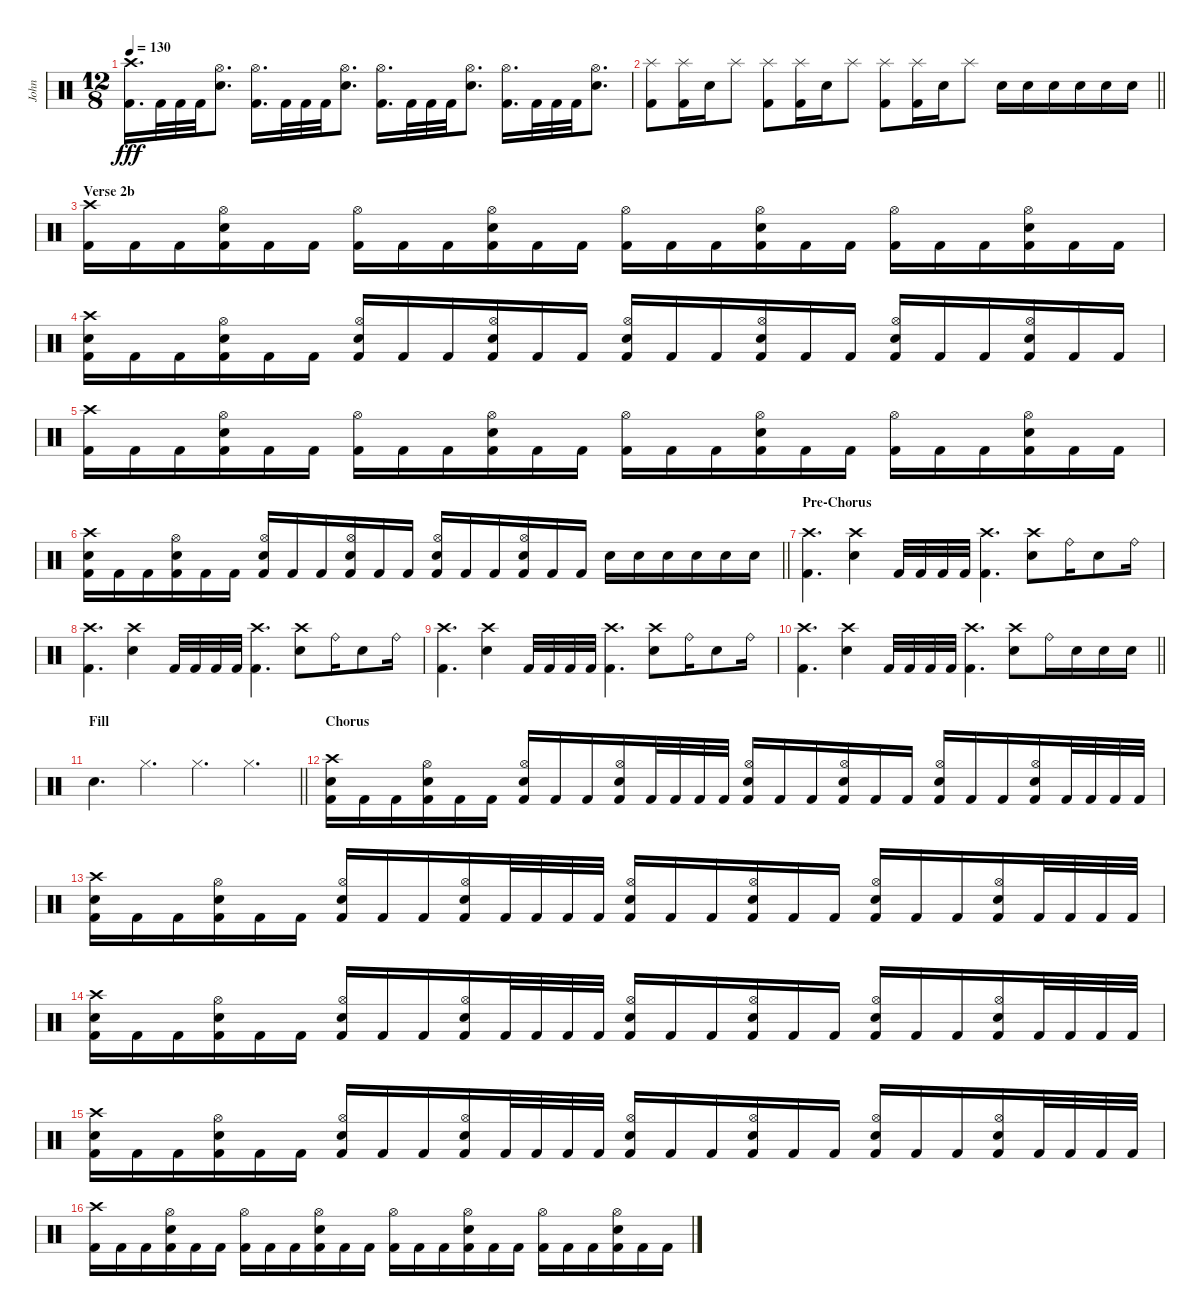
\track ("John" "John") {instrument percussion}
\staff {score}
\articulation defaults
\ts (12 8)
\tempo 130
\clef neutral
\ks c
("Crash high (hit)" "Kick (hit) 2").16{d dy fff} "Kick (hit) 2".32 "Kick (hit) 2".32 "Kick (hit) 2".32 ("Hi-Hat (open)" "Electric Snare (hit)").8{d} ("Hi-Hat (open)" "Kick (hit) 2").16{d} "Kick (hit) 2".32 "Kick (hit) 2".32 "Kick (hit) 2".32 ("Hi-Hat (open)" "Electric Snare (hit)").8{d} ("Hi-Hat (open)" "Kick (hit) 2").16{d} "Kick (hit) 2".32 "Kick (hit) 2".32 "Kick (hit) 2".32 ("Hi-Hat (open)" "Electric Snare (hit)").8{d} ("Hi-Hat (open)" "Kick (hit) 2").16{d} "Kick (hit) 2".32 "Kick (hit) 2".32 "Kick (hit) 2".32 ("Hi-Hat (open)" "Electric Snare (hit)").8{d} |
\barLineRight lightlight
("Splash (hit)" "Kick (hit) 2").8 ("Splash (hit)" "Kick (hit) 2").16 "Electric Snare (hit)".16 "Splash (hit)".8 ("Splash (hit)" "Kick (hit) 2").8 ("Splash (hit)" "Kick (hit) 2").16 "Electric Snare (hit)".16 "Splash (hit)".8 ("Splash (hit)" "Kick (hit) 2").8 ("Splash (hit)" "Kick (hit) 2").16 "Electric Snare (hit)".16 "Splash (hit)".8 "Electric Snare (hit)".16 "Electric Snare (hit)".16 "Electric Snare (hit)".16 "Electric Snare (hit)".16 "Electric Snare (hit)".16 "Electric Snare (hit)".16 |
\section ("" "Verse 2b")
("Crash high (hit)" "Kick (hit) 2").16 "Kick (hit) 2".16 "Kick (hit) 2".16 ("Hi-Hat (open)" "Electric Snare (hit)" "Kick (hit) 2").16 "Kick (hit) 2".16 "Kick (hit) 2".16 ("Hi-Hat (open)" "Kick (hit) 2").16 "Kick (hit) 2".16 "Kick (hit) 2".16 ("Hi-Hat (open)" "Electric Snare (hit)" "Kick (hit) 2").16 "Kick (hit) 2".16 "Kick (hit) 2".16 ("Hi-Hat (open)" "Kick (hit) 2").16 "Kick (hit) 2".16 "Kick (hit) 2".16 ("Hi-Hat (open)" "Electric Snare (hit)" "Kick (hit) 2").16 "Kick (hit) 2".16 "Kick (hit) 2".16 ("Hi-Hat (open)" "Kick (hit) 2").16 "Kick (hit) 2".16 "Kick (hit) 2".16 ("Hi-Hat (open)" "Electric Snare (hit)" "Kick (hit) 2").16 "Kick (hit) 2".16 "Kick (hit) 2".16 |
("Crash high (hit)" "Electric Snare (hit)" "Kick (hit) 2").16 "Kick (hit) 2".16 "Kick (hit) 2".16 ("Hi-Hat (open)" "Electric Snare (hit)" "Kick (hit) 2").16 "Kick (hit) 2".16 "Kick (hit) 2".16 ("Hi-Hat (open)" "Electric Snare (hit)" "Kick (hit) 2").16 "Kick (hit) 2".16 "Kick (hit) 2".16 ("Hi-Hat (open)" "Electric Snare (hit)" "Kick (hit) 2").16 "Kick (hit) 2".16 "Kick (hit) 2".16 ("Hi-Hat (open)" "Electric Snare (hit)" "Kick (hit) 2").16 "Kick (hit) 2".16 "Kick (hit) 2".16 ("Hi-Hat (open)" "Electric Snare (hit)" "Kick (hit) 2").16 "Kick (hit) 2".16 "Kick (hit) 2".16 ("Hi-Hat (open)" "Electric Snare (hit)" "Kick (hit) 2").16 "Kick (hit) 2".16 "Kick (hit) 2".16 ("Hi-Hat (open)" "Electric Snare (hit)" "Kick (hit) 2").16 "Kick (hit) 2".16 "Kick (hit) 2".16 |
("Crash high (hit)" "Kick (hit) 2").16 "Kick (hit) 2".16 "Kick (hit) 2".16 ("Hi-Hat (open)" "Electric Snare (hit)" "Kick (hit) 2").16 "Kick (hit) 2".16 "Kick (hit) 2".16 ("Hi-Hat (open)" "Kick (hit) 2").16 "Kick (hit) 2".16 "Kick (hit) 2".16 ("Hi-Hat (open)" "Electric Snare (hit)" "Kick (hit) 2").16 "Kick (hit) 2".16 "Kick (hit) 2".16 ("Hi-Hat (open)" "Kick (hit) 2").16 "Kick (hit) 2".16 "Kick (hit) 2".16 ("Hi-Hat (open)" "Electric Snare (hit)" "Kick (hit) 2").16 "Kick (hit) 2".16 "Kick (hit) 2".16 ("Hi-Hat (open)" "Kick (hit) 2").16 "Kick (hit) 2".16 "Kick (hit) 2".16 ("Hi-Hat (open)" "Electric Snare (hit)" "Kick (hit) 2").16 "Kick (hit) 2".16 "Kick (hit) 2".16 |
\barLineRight lightlight
("Crash high (hit)" "Electric Snare (hit)" "Kick (hit) 2").16 "Kick (hit) 2".16 "Kick (hit) 2".16 ("Hi-Hat (open)" "Electric Snare (hit)" "Kick (hit) 2").16 "Kick (hit) 2".16 "Kick (hit) 2".16 ("Hi-Hat (open)" "Electric Snare (hit)" "Kick (hit) 2").16 "Kick (hit) 2".16 "Kick (hit) 2".16 ("Hi-Hat (open)" "Electric Snare (hit)" "Kick (hit) 2").16 "Kick (hit) 2".16 "Kick (hit) 2".16 ("Hi-Hat (open)" "Electric Snare (hit)" "Kick (hit) 2").16 "Kick (hit) 2".16 "Kick (hit) 2".16 ("Hi-Hat (open)" "Electric Snare (hit)" "Kick (hit) 2").16 "Kick (hit) 2".16 "Kick (hit) 2".16 "Electric Snare (hit)".16 "Electric Snare (hit)".16 "Electric Snare (hit)".16 "Electric Snare (hit)".16 "Electric Snare (hit)".16 "Electric Snare (hit)".16 |
\section ("" "Pre-Chorus")
("Crash high (hit)" "Kick (hit) 2").4{d} ("Crash high (hit)" "Electric Snare (hit)").4 "Kick (hit) 2".32 "Kick (hit) 2".32 "Kick (hit) 2".32 "Kick (hit) 2".32 ("Crash high (hit)" "Kick (hit) 2").4{d} ("Crash high (hit)" "Electric Snare (hit)").8 "Ride (bell)".16 "Electric Snare (hit)".8 "Ride (bell)".16 |
("Crash high (hit)" "Kick (hit) 2").4{d} ("Crash high (hit)" "Electric Snare (hit)").4 "Kick (hit) 2".32 "Kick (hit) 2".32 "Kick (hit) 2".32 "Kick (hit) 2".32 ("Crash high (hit)" "Kick (hit) 2").4{d} ("Crash high (hit)" "Electric Snare (hit)").8 "Ride (bell)".16 "Electric Snare (hit)".8 "Ride (bell)".16 |
("Crash high (hit)" "Kick (hit) 2").4{d} ("Crash high (hit)" "Electric Snare (hit)").4 "Kick (hit) 2".32 "Kick (hit) 2".32 "Kick (hit) 2".32 "Kick (hit) 2".32 ("Crash high (hit)" "Kick (hit) 2").4{d} ("Crash high (hit)" "Electric Snare (hit)").8 "Ride (bell)".16 "Electric Snare (hit)".8 "Ride (bell)".16 |
\barLineRight lightlight
("Crash high (hit)" "Kick (hit) 2").4{d} ("Crash high (hit)" "Electric Snare (hit)").4 "Kick (hit) 2".32 "Kick (hit) 2".32 "Kick (hit) 2".32 "Kick (hit) 2".32 ("Crash high (hit)" "Kick (hit) 2").4{d} ("Crash high (hit)" "Electric Snare (hit)").8 "Ride (bell)".16 "Electric Snare (hit)".16 "Electric Snare (hit)".16 "Electric Snare (hit)".16 |
\section ("" "Fill")
\barLineRight lightlight "Electric Snare (hit)".4{d} "Hi-Hat (closed)".4{d} "Hi-Hat (closed)".4{d} "Hi-Hat (closed)".4{d}
|
\section ("" "Chorus")
("Crash high (hit)" "Electric Snare (hit)" "Kick (hit) 2").16 "Kick (hit) 2".16 "Kick (hit) 2".16 ("Hi-Hat (open)" "Electric Snare (hit)" "Kick (hit) 2").16 "Kick (hit) 2".16 "Kick (hit) 2".16 ("Hi-Hat (open)" "Electric Snare (hit)" "Kick (hit) 2").16 "Kick (hit) 2".16 "Kick (hit) 2".16 ("Hi-Hat (open)" "Electric Snare (hit)" "Kick (hit) 2").16 "Kick (hit) 2".32 "Kick (hit) 2".32 "Kick (hit) 2".32 "Kick (hit) 2".32 ("Hi-Hat (open)" "Electric Snare (hit)" "Kick (hit) 2").16 "Kick (hit) 2".16 "Kick (hit) 2".16 ("Hi-Hat (open)" "Electric Snare (hit)" "Kick (hit) 2").16 "Kick (hit) 2".16 "Kick (hit) 2".16 ("Hi-Hat (open)" "Electric Snare (hit)" "Kick (hit) 2").16 "Kick (hit) 2".16 "Kick (hit) 2".16 ("Hi-Hat (open)" "Electric Snare (hit)" "Kick (hit) 2").16 "Kick (hit) 2".32 "Kick (hit) 2".32 "Kick (hit) 2".32 "Kick (hit) 2".32 |
("Crash high (hit)" "Electric Snare (hit)" "Kick (hit) 2").16 "Kick (hit) 2".16 "Kick (hit) 2".16 ("Hi-Hat (open)" "Electric Snare (hit)" "Kick (hit) 2").16 "Kick (hit) 2".16 "Kick (hit) 2".16 ("Hi-Hat (open)" "Electric Snare (hit)" "Kick (hit) 2").16 "Kick (hit) 2".16 "Kick (hit) 2".16 ("Hi-Hat (open)" "Electric Snare (hit)" "Kick (hit) 2").16 "Kick (hit) 2".32 "Kick (hit) 2".32 "Kick (hit) 2".32 "Kick (hit) 2".32 ("Hi-Hat (open)" "Electric Snare (hit)" "Kick (hit) 2").16 "Kick (hit) 2".16 "Kick (hit) 2".16 ("Hi-Hat (open)" "Electric Snare (hit)" "Kick (hit) 2").16 "Kick (hit) 2".16 "Kick (hit) 2".16 ("Hi-Hat (open)" "Electric Snare (hit)" "Kick (hit) 2").16 "Kick (hit) 2".16 "Kick (hit) 2".16 ("Hi-Hat (open)" "Electric Snare (hit)" "Kick (hit) 2").16 "Kick (hit) 2".32 "Kick (hit) 2".32 "Kick (hit) 2".32 "Kick (hit) 2".32 |
("Crash high (hit)" "Electric Snare (hit)" "Kick (hit) 2").16 "Kick (hit) 2".16 "Kick (hit) 2".16 ("Hi-Hat (open)" "Electric Snare (hit)" "Kick (hit) 2").16 "Kick (hit) 2".16 "Kick (hit) 2".16 ("Hi-Hat (open)" "Electric Snare (hit)" "Kick (hit) 2").16 "Kick (hit) 2".16 "Kick (hit) 2".16 ("Hi-Hat (open)" "Electric Snare (hit)" "Kick (hit) 2").16 "Kick (hit) 2".32 "Kick (hit) 2".32 "Kick (hit) 2".32 "Kick (hit) 2".32 ("Hi-Hat (open)" "Electric Snare (hit)" "Kick (hit) 2").16 "Kick (hit) 2".16 "Kick (hit) 2".16 ("Hi-Hat (open)" "Electric Snare (hit)" "Kick (hit) 2").16 "Kick (hit) 2".16 "Kick (hit) 2".16 ("Hi-Hat (open)" "Electric Snare (hit)" "Kick (hit) 2").16 "Kick (hit) 2".16 "Kick (hit) 2".16 ("Hi-Hat (open)" "Electric Snare (hit)" "Kick (hit) 2").16 "Kick (hit) 2".32 "Kick (hit) 2".32 "Kick (hit) 2".32 "Kick (hit) 2".32 |
("Crash high (hit)" "Electric Snare (hit)" "Kick (hit) 2").16 "Kick (hit) 2".16 "Kick (hit) 2".16 ("Hi-Hat (open)" "Electric Snare (hit)" "Kick (hit) 2").16 "Kick (hit) 2".16 "Kick (hit) 2".16 ("Hi-Hat (open)" "Electric Snare (hit)" "Kick (hit) 2").16 "Kick (hit) 2".16 "Kick (hit) 2".16 ("Hi-Hat (open)" "Electric Snare (hit)" "Kick (hit) 2").16 "Kick (hit) 2".32 "Kick (hit) 2".32 "Kick (hit) 2".32 "Kick (hit) 2".32 ("Hi-Hat (open)" "Electric Snare (hit)" "Kick (hit) 2").16 "Kick (hit) 2".16 "Kick (hit) 2".16 ("Hi-Hat (open)" "Electric Snare (hit)" "Kick (hit) 2").16 "Kick (hit) 2".16 "Kick (hit) 2".16 ("Hi-Hat (open)" "Electric Snare (hit)" "Kick (hit) 2").16 "Kick (hit) 2".16 "Kick (hit) 2".16 ("Hi-Hat (open)" "Electric Snare (hit)" "Kick (hit) 2").16 "Kick (hit) 2".32 "Kick (hit) 2".32 "Kick (hit) 2".32 "Kick (hit) 2".32 |
("Crash high (hit)" "Kick (hit) 2").16 "Kick (hit) 2".16 "Kick (hit) 2".16 ("Hi-Hat (open)" "Electric Snare (hit)" "Kick (hit) 2").16 "Kick (hit) 2".16 "Kick (hit) 2".16 ("Hi-Hat (open)" "Kick (hit) 2").16 "Kick (hit) 2".16 "Kick (hit) 2".16 ("Hi-Hat (open)" "Electric Snare (hit)" "Kick (hit) 2").16 "Kick (hit) 2".16 "Kick (hit) 2".16 ("Hi-Hat (open)" "Kick (hit) 2").16 "Kick (hit) 2".16 "Kick (hit) 2".16 ("Hi-Hat (open)" "Electric Snare (hit)" "Kick (hit) 2").16 "Kick (hit) 2".16 "Kick (hit) 2".16 ("Hi-Hat (open)" "Kick (hit) 2").16 "Kick (hit) 2".16 "Kick (hit) 2".16 ("Hi-Hat (open)" "Electric Snare (hit)" "Kick (hit) 2").16 "Kick (hit) 2".16 "Kick (hit) 2".16
